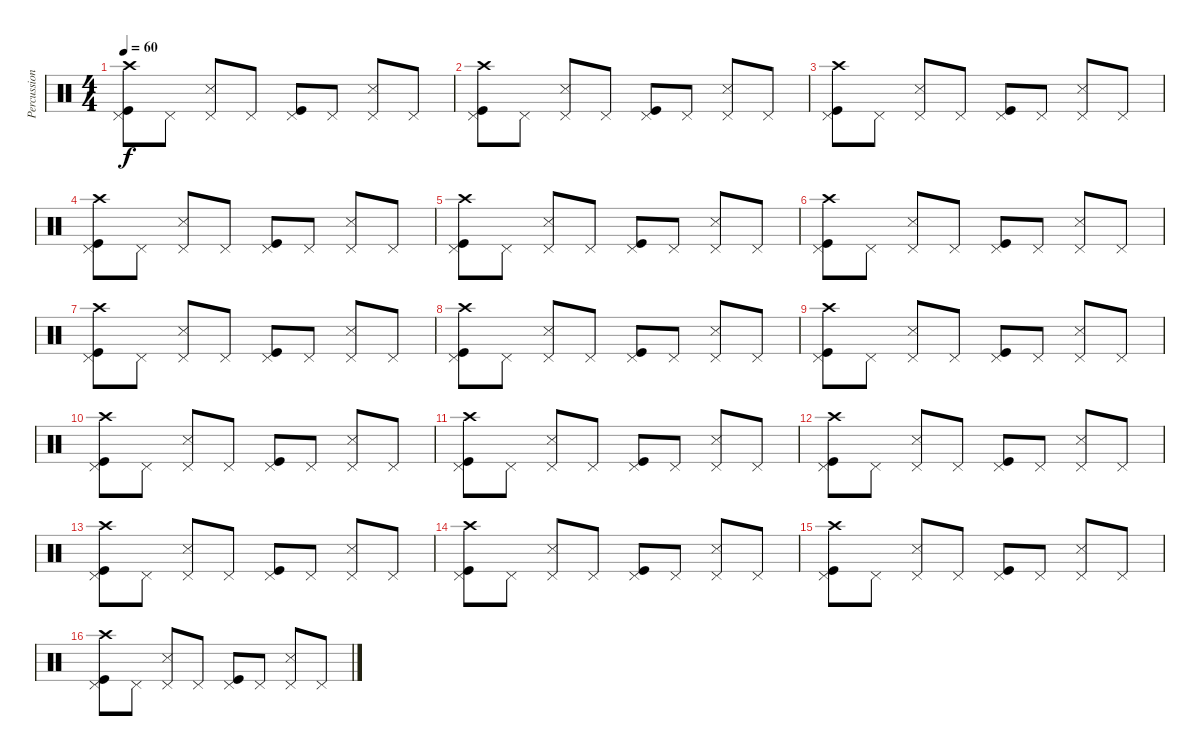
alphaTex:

\track ("Percussions" "Percussion") {instrument percussion}
\staff {score}
\articulation defaults
\ts (4 4)
\tempo 60
\clef neutral
\ks c
("Crash high (hit)" "Pedal Hi-Hat (hit)" "Kick (hit)").8{dy f} "Pedal Hi-Hat (hit)".8 ("Pedal Hi-Hat (hit)" "Snare (side stick) 3").8 "Pedal Hi-Hat (hit)".8 ("Pedal Hi-Hat (hit)" "Kick (hit)").8 "Pedal Hi-Hat (hit)".8 ("Pedal Hi-Hat (hit)" "Snare (side stick) 3").8 "Pedal Hi-Hat (hit)".8 |
("Crash high (hit)" "Pedal Hi-Hat (hit)" "Kick (hit)").8 "Pedal Hi-Hat (hit)".8 ("Pedal Hi-Hat (hit)" "Snare (side stick) 3").8 "Pedal Hi-Hat (hit)".8 ("Pedal Hi-Hat (hit)" "Kick (hit)").8 "Pedal Hi-Hat (hit)".8 ("Pedal Hi-Hat (hit)" "Snare (side stick) 3").8 "Pedal Hi-Hat (hit)".8 |
("Crash high (hit)" "Pedal Hi-Hat (hit)" "Kick (hit)").8 "Pedal Hi-Hat (hit)".8 ("Pedal Hi-Hat (hit)" "Snare (side stick) 3").8 "Pedal Hi-Hat (hit)".8 ("Pedal Hi-Hat (hit)" "Kick (hit)").8 "Pedal Hi-Hat (hit)".8 ("Pedal Hi-Hat (hit)" "Snare (side stick) 3").8 "Pedal Hi-Hat (hit)".8 |
("Crash high (hit)" "Pedal Hi-Hat (hit)" "Kick (hit)").8 "Pedal Hi-Hat (hit)".8 ("Pedal Hi-Hat (hit)" "Snare (side stick) 3").8 "Pedal Hi-Hat (hit)".8 ("Pedal Hi-Hat (hit)" "Kick (hit)").8 "Pedal Hi-Hat (hit)".8 ("Pedal Hi-Hat (hit)" "Snare (side stick) 3").8 "Pedal Hi-Hat (hit)".8 |
("Crash high (hit)" "Pedal Hi-Hat (hit)" "Kick (hit)").8 "Pedal Hi-Hat (hit)".8 ("Pedal Hi-Hat (hit)" "Snare (side stick) 3").8 "Pedal Hi-Hat (hit)".8 ("Pedal Hi-Hat (hit)" "Kick (hit)").8 "Pedal Hi-Hat (hit)".8 ("Pedal Hi-Hat (hit)" "Snare (side stick) 3").8 "Pedal Hi-Hat (hit)".8 |
("Crash high (hit)" "Pedal Hi-Hat (hit)" "Kick (hit)").8 "Pedal Hi-Hat (hit)".8 ("Pedal Hi-Hat (hit)" "Snare (side stick) 3").8 "Pedal Hi-Hat (hit)".8 ("Pedal Hi-Hat (hit)" "Kick (hit)").8 "Pedal Hi-Hat (hit)".8 ("Pedal Hi-Hat (hit)" "Snare (side stick) 3").8 "Pedal Hi-Hat (hit)".8 |
("Crash high (hit)" "Pedal Hi-Hat (hit)" "Kick (hit)").8 "Pedal Hi-Hat (hit)".8 ("Pedal Hi-Hat (hit)" "Snare (side stick) 3").8 "Pedal Hi-Hat (hit)".8 ("Pedal Hi-Hat (hit)" "Kick (hit)").8 "Pedal Hi-Hat (hit)".8 ("Pedal Hi-Hat (hit)" "Snare (side stick) 3").8 "Pedal Hi-Hat (hit)".8 |
("Crash high (hit)" "Pedal Hi-Hat (hit)" "Kick (hit)").8 "Pedal Hi-Hat (hit)".8 ("Pedal Hi-Hat (hit)" "Snare (side stick) 3").8 "Pedal Hi-Hat (hit)".8 ("Pedal Hi-Hat (hit)" "Kick (hit)").8 "Pedal Hi-Hat (hit)".8 ("Pedal Hi-Hat (hit)" "Snare (side stick) 3").8 "Pedal Hi-Hat (hit)".8 |
("Crash high (hit)" "Pedal Hi-Hat (hit)" "Kick (hit)").8 "Pedal Hi-Hat (hit)".8 ("Pedal Hi-Hat (hit)" "Snare (side stick) 3").8 "Pedal Hi-Hat (hit)".8 ("Pedal Hi-Hat (hit)" "Kick (hit)").8 "Pedal Hi-Hat (hit)".8 ("Pedal Hi-Hat (hit)" "Snare (side stick) 3").8 "Pedal Hi-Hat (hit)".8 |
("Crash high (hit)" "Pedal Hi-Hat (hit)" "Kick (hit)").8 "Pedal Hi-Hat (hit)".8 ("Pedal Hi-Hat (hit)" "Snare (side stick) 3").8 "Pedal Hi-Hat (hit)".8 ("Pedal Hi-Hat (hit)" "Kick (hit)").8 "Pedal Hi-Hat (hit)".8 ("Pedal Hi-Hat (hit)" "Snare (side stick) 3").8 "Pedal Hi-Hat (hit)".8 |
("Crash high (hit)" "Pedal Hi-Hat (hit)" "Kick (hit)").8 "Pedal Hi-Hat (hit)".8 ("Pedal Hi-Hat (hit)" "Snare (side stick) 3").8 "Pedal Hi-Hat (hit)".8 ("Pedal Hi-Hat (hit)" "Kick (hit)").8 "Pedal Hi-Hat (hit)".8 ("Pedal Hi-Hat (hit)" "Snare (side stick) 3").8 "Pedal Hi-Hat (hit)".8 |
("Crash high (hit)" "Pedal Hi-Hat (hit)" "Kick (hit)").8 "Pedal Hi-Hat (hit)".8 ("Pedal Hi-Hat (hit)" "Snare (side stick) 3").8 "Pedal Hi-Hat (hit)".8 ("Pedal Hi-Hat (hit)" "Kick (hit)").8 "Pedal Hi-Hat (hit)".8 ("Pedal Hi-Hat (hit)" "Snare (side stick) 3").8 "Pedal Hi-Hat (hit)".8 |
("Crash high (hit)" "Pedal Hi-Hat (hit)" "Kick (hit)").8 "Pedal Hi-Hat (hit)".8 ("Pedal Hi-Hat (hit)" "Snare (side stick) 3").8 "Pedal Hi-Hat (hit)".8 ("Pedal Hi-Hat (hit)" "Kick (hit)").8 "Pedal Hi-Hat (hit)".8 ("Pedal Hi-Hat (hit)" "Snare (side stick) 3").8 "Pedal Hi-Hat (hit)".8 |
("Crash high (hit)" "Pedal Hi-Hat (hit)" "Kick (hit)").8 "Pedal Hi-Hat (hit)".8 ("Pedal Hi-Hat (hit)" "Snare (side stick) 3").8 "Pedal Hi-Hat (hit)".8 ("Pedal Hi-Hat (hit)" "Kick (hit)").8 "Pedal Hi-Hat (hit)".8 ("Pedal Hi-Hat (hit)" "Snare (side stick) 3").8 "Pedal Hi-Hat (hit)".8 |
("Crash high (hit)" "Pedal Hi-Hat (hit)" "Kick (hit)").8{volume 4} "Pedal Hi-Hat (hit)".8 ("Pedal Hi-Hat (hit)" "Snare (side stick) 3").8 "Pedal Hi-Hat (hit)".8 ("Pedal Hi-Hat (hit)" "Kick (hit)").8 "Pedal Hi-Hat (hit)".8 ("Pedal Hi-Hat (hit)" "Snare (side stick) 3").8 "Pedal Hi-Hat (hit)".8 |
("Crash high (hit)" "Pedal Hi-Hat (hit)" "Kick (hit)").8 "Pedal Hi-Hat (hit)".8 ("Pedal Hi-Hat (hit)" "Snare (side stick) 3").8 "Pedal Hi-Hat (hit)".8 ("Pedal Hi-Hat (hit)" "Kick (hit)").8 "Pedal Hi-Hat (hit)".8 ("Pedal Hi-Hat (hit)" "Snare (side stick) 3").8 "Pedal Hi-Hat (hit)".8
